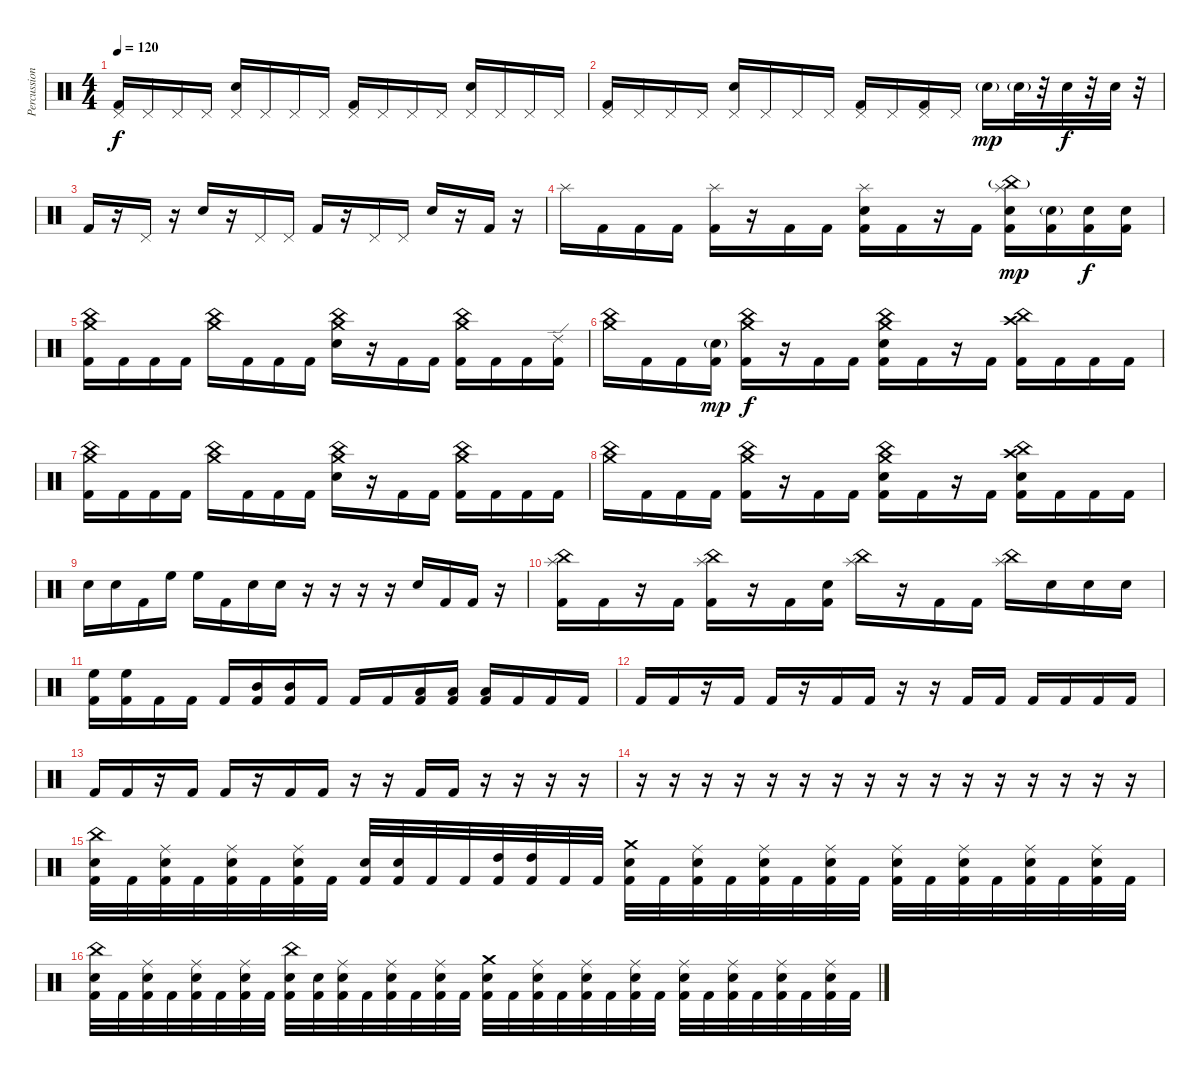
\track ("Percussion" "Percussion") {instrument percussion}
\staff {score}
\articulation defaults
\ts (4 4)
\tempo 120
\clef neutral
\ks c
("Pedal Hi-Hat (hit)" "Kick (hit) 2").16{dy f} "Pedal Hi-Hat (hit)".16 "Pedal Hi-Hat (hit)".16 "Pedal Hi-Hat (hit)".16 ("Pedal Hi-Hat (hit)" "Electric Snare (hit)").16 "Pedal Hi-Hat (hit)".16 "Pedal Hi-Hat (hit)".16 "Pedal Hi-Hat (hit)".16 ("Pedal Hi-Hat (hit)" "Kick (hit) 2").16 "Pedal Hi-Hat (hit)".16 "Pedal Hi-Hat (hit)".16 "Pedal Hi-Hat (hit)".16 ("Pedal Hi-Hat (hit)" "Electric Snare (hit)").16 "Pedal Hi-Hat (hit)".16 "Pedal Hi-Hat (hit)".16 "Pedal Hi-Hat (hit)".16 |
("Pedal Hi-Hat (hit)" "Kick (hit) 2").16 "Pedal Hi-Hat (hit)".16 "Pedal Hi-Hat (hit)".16 "Pedal Hi-Hat (hit)".16 ("Pedal Hi-Hat (hit)" "Electric Snare (hit)").16 "Pedal Hi-Hat (hit)".16 "Pedal Hi-Hat (hit)".16 "Pedal Hi-Hat (hit)".16 ("Pedal Hi-Hat (hit)" "Kick (hit) 2").16 "Pedal Hi-Hat (hit)".16 ("Pedal Hi-Hat (hit)" "Kick (hit) 2").16 "Pedal Hi-Hat (hit)".16 "Electric Snare (hit)"{g}.16{dy mp} "Electric Snare (hit)"{g}.32 r.32 "Electric Snare (hit)".32{dy f} r.32 "Electric Snare (hit)".32 r.32 |
"Kick (hit) 2".16 r.16 "Pedal Hi-Hat (hit)".16 r.16 "Electric Snare (hit)".16 r.16 "Pedal Hi-Hat (hit)".16 "Pedal Hi-Hat (hit)".16 "Kick (hit) 2".16 r.16 "Pedal Hi-Hat (hit)".16 "Pedal Hi-Hat (hit)".16 "Electric Snare (hit)".16 r.16 "Kick (hit) 2".16 r.16 |
"Splash (hit)".16 "Kick (hit) 2".16 "Kick (hit) 2".16 "Kick (hit) 2".16 ("Splash (hit)" "Kick (hit) 2").16 r.16 "Kick (hit) 2".16 "Kick (hit) 2".16 ("Splash (hit)" "Electric Snare (hit)" "Kick (hit) 2").16 "Kick (hit) 2".16 r.16 "Kick (hit) 2".16 ("Splash (hit)" "China (hit)"{g} "Electric Snare (hit)" "Kick (hit) 2").16{dy mp} ("Electric Snare (hit)"{g} "Kick (hit) 2").16 ("Electric Snare (hit)" "Kick (hit) 2").16{dy f} ("Electric Snare (hit)" "Kick (hit) 2").16 |
("China (hit)" "Crash medium (hit)" "Kick (hit) 2").16 "Kick (hit) 2".16 "Kick (hit) 2".16 "Kick (hit) 2".16 ("China (hit)" "Crash medium (hit)").16 "Kick (hit) 2".16 "Kick (hit) 2".16 "Kick (hit) 2".16 ("China (hit)" "Crash medium (hit)" "Electric Snare (hit)").16 r.16 "Kick (hit) 2".16 "Kick (hit) 2".16 ("China (hit)" "Crash medium (hit)" "Kick (hit) 2").16 "Kick (hit) 2".16 "Kick (hit) 2".16 ("Ride (edge) 2" "Kick (hit) 2").16 |
("Crash medium (hit)" "China (hit)").16 "Kick (hit) 2".16 "Kick (hit) 2".16 ("Electric Snare (hit)"{g} "Kick (hit) 2").16{dy mp} ("Crash medium (hit)" "China (hit)" "Kick (hit) 2").16{dy f} r.16 "Kick (hit) 2".16 "Kick (hit) 2".16 ("Crash medium (hit)" "China (hit)" "Electric Snare (hit)" "Kick (hit) 2").16 "Kick (hit) 2".16 r.16 "Kick (hit) 2".16 ("Crash high (hit)" "China (hit)" "Kick (hit) 2").16 "Kick (hit) 2".16 "Kick (hit) 2".16 "Kick (hit) 2".16 |
("China (hit)" "Crash medium (hit)" "Kick (hit) 2").16 "Kick (hit) 2".16 "Kick (hit) 2".16 "Kick (hit) 2".16 ("China (hit)" "Crash medium (hit)").16 "Kick (hit) 2".16 "Kick (hit) 2".16 "Kick (hit) 2".16 ("China (hit)" "Crash medium (hit)" "Electric Snare (hit)").16 r.16 "Kick (hit) 2".16 "Kick (hit) 2".16 ("China (hit)" "Crash medium (hit)" "Kick (hit) 2").16 "Kick (hit) 2".16 "Kick (hit) 2".16 "Kick (hit) 2".16 |
("Crash medium (hit)" "China (hit)").16 "Kick (hit) 2".16 "Kick (hit) 2".16 "Kick (hit) 2".16 ("Crash medium (hit)" "China (hit)" "Kick (hit) 2").16 r.16 "Kick (hit) 2".16 "Kick (hit) 2".16 ("Crash medium (hit)" "China (hit)" "Electric Snare (hit)" "Kick (hit) 2").16 "Kick (hit) 2".16 r.16 "Kick (hit) 2".16 ("Crash high (hit)" "China (hit)" "Electric Snare (hit)" "Kick (hit) 2").16 "Kick (hit) 2".16 "Kick (hit) 2".16 "Kick (hit) 2".16 |
"Electric Snare (hit)".16 "Electric Snare (hit)".16 "Kick (hit) 2".16 "High Floor Tom (hit)".16 "High Floor Tom (hit)".16 "Kick (hit) 2".16 "Electric Snare (hit)".16 "Electric Snare (hit)".16 r.16 r.16 r.16 r.16 "Electric Snare (hit)".16 "Kick (hit) 2".16 "Kick (hit) 2".16 r.16 |
("Splash (hit)" "China (hit)" "Kick (hit) 2").16 "Kick (hit) 2".16 r.16 "Kick (hit) 2".16 ("Splash (hit)" "China (hit)" "Kick (hit) 2").16 r.16 "Kick (hit) 2".16 ("Electric Snare (hit)" "Kick (hit) 2").16 ("Splash (hit)" "China (hit)").16 r.16 "Kick (hit) 2".16 "Kick (hit) 2".16 ("Splash (hit)" "China (hit)").16 "Electric Snare (hit)".16 "Electric Snare (hit)".16 "Electric Snare (hit)".16 |
("High Floor Tom (hit)" "Kick (hit) 2").16 ("High Floor Tom (hit)" "Kick (hit) 2").16 "Kick (hit) 2".16 "Kick (hit) 2".16 "Kick (hit) 2".16 ("Mid Tom (hit)" "Kick (hit) 2").16 ("Mid Tom (hit)" "Kick (hit) 2").16 "Kick (hit) 2".16 "Kick (hit) 2".16 "Kick (hit) 2".16 ("Low Tom (hit)" "Kick (hit) 2").16 ("Low Tom (hit)" "Kick (hit) 2").16 ("Low Tom (hit)" "Kick (hit) 2").16 "Kick (hit) 2".16 "Kick (hit) 2".16 "Kick (hit) 2".16 |
"Kick (hit) 2".16 "Kick (hit) 2".16 r.16 "Kick (hit) 2".16 "Kick (hit) 2".16 r.16 "Kick (hit) 2".16 "Kick (hit) 2".16 r.16 r.16 "Kick (hit) 2".16 "Kick (hit) 2".16 "Kick (hit) 2".16 "Kick (hit) 2".16 "Kick (hit) 2".16 "Kick (hit) 2".16 |
"Kick (hit) 2".16 "Kick (hit) 2".16 r.16 "Kick (hit) 2".16 "Kick (hit) 2".16 r.16 "Kick (hit) 2".16 "Kick (hit) 2".16 r.16 r.16 "Kick (hit) 2".16 "Kick (hit) 2".16 r.16 r.16 r.16 r.16 |
r.16 r.16 r.16 r.16 r.16 r.16 r.16 r.16 r.16 r.16 r.16 r.16 r.16 r.16 r.16 r.16 |
("China (hit)" "Electric Snare (hit)" "Kick (hit) 2").32 "Kick (hit) 2".32 ("Ride (middle)" "Electric Snare (hit)" "Kick (hit) 2").32 "Kick (hit) 2".32 ("Ride (middle)" "Electric Snare (hit)" "Kick (hit) 2").32 "Kick (hit) 2".32 ("Ride (middle)" "Electric Snare (hit)" "Kick (hit) 2").32 "Kick (hit) 2".32 ("Electric Snare (hit)" "Kick (hit) 2").32 ("Electric Snare (hit)" "Kick (hit) 2").32 "Kick (hit) 2".32 "Kick (hit) 2".32 ("High Tom (hit)" "Kick (hit) 2").32 ("High Tom (hit)" "Kick (hit) 2").32 "Kick (hit) 2".32 "Kick (hit) 2".32 ("Crash medium (hit)" "Electric Snare (hit)" "Kick (hit) 2").32 "Kick (hit) 2".32 ("Ride (middle)" "Electric Snare (hit)" "Kick (hit) 2").32 "Kick (hit) 2".32 ("Ride (middle)" "Electric Snare (hit)" "Kick (hit) 2").32 "Kick (hit) 2".32 ("Ride (middle)" "Electric Snare (hit)" "Kick (hit) 2").32 "Kick (hit) 2".32 ("Ride (middle)" "Electric Snare (hit)" "Kick (hit) 2").32 "Kick (hit) 2".32 ("Ride (middle)" "Electric Snare (hit)" "Kick (hit) 2").32 "Kick (hit) 2".32 ("Ride (middle)" "Electric Snare (hit)" "Kick (hit) 2").32 "Kick (hit) 2".32 ("Ride (middle)" "Electric Snare (hit)" "Kick (hit) 2").32 "Kick (hit) 2".32 |
("China (hit)" "Electric Snare (hit)" "Kick (hit) 2").32 "Kick (hit) 2".32 ("Ride (middle)" "Electric Snare (hit)" "Kick (hit) 2").32 "Kick (hit) 2".32 ("Ride (middle)" "Electric Snare (hit)" "Kick (hit) 2").32 "Kick (hit) 2".32 ("Ride (middle)" "Electric Snare (hit)" "Kick (hit) 2").32 "Kick (hit) 2".32 ("China (hit)" "Electric Snare (hit)" "Kick (hit) 2").32 ("Electric Snare (hit)" "Kick (hit) 2").32 ("Ride (middle)" "Electric Snare (hit)" "Kick (hit) 2").32 "Kick (hit) 2".32 ("Ride (middle)" "Electric Snare (hit)" "Kick (hit) 2").32 "Kick (hit) 2".32 ("Ride (middle)" "Electric Snare (hit)" "Kick (hit) 2").32 "Kick (hit) 2".32 ("Crash medium (hit)" "Electric Snare (hit)" "Kick (hit) 2").32 "Kick (hit) 2".32 ("Ride (middle)" "Electric Snare (hit)" "Kick (hit) 2").32 "Kick (hit) 2".32 ("Ride (middle)" "Electric Snare (hit)" "Kick (hit) 2").32 "Kick (hit) 2".32 ("Ride (middle)" "Electric Snare (hit)" "Kick (hit) 2").32 "Kick (hit) 2".32 ("Ride (middle)" "Electric Snare (hit)" "Kick (hit) 2").32 "Kick (hit) 2".32 ("Ride (middle)" "Electric Snare (hit)" "Kick (hit) 2").32 "Kick (hit) 2".32 ("Ride (middle)" "Electric Snare (hit)" "Kick (hit) 2").32 "Kick (hit) 2".32 ("Ride (middle)" "Electric Snare (hit)" "Kick (hit) 2").32 "Kick (hit) 2".32
